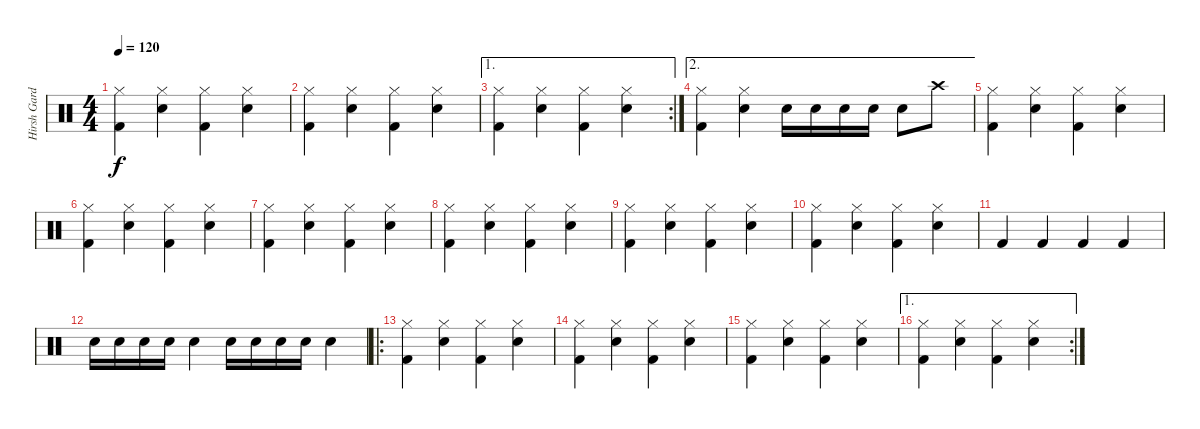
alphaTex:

\track ("Hirsh Gardner" "Hirsh Gard") {instrument percussion}
\staff {score}
\articulation defaults
\ts (4 4)
\tempo 120
\clef neutral
\ks c
("Kick (hit) 2" "Hi-Hat (closed)").4{dy f} ("Snare (hit) 2" "Hi-Hat (closed)").4 ("Kick (hit) 2" "Hi-Hat (closed)").4 ("Snare (hit) 2" "Hi-Hat (closed)").4 |
("Kick (hit) 2" "Hi-Hat (closed)").4 ("Snare (hit) 2" "Hi-Hat (closed)").4 ("Kick (hit) 2" "Hi-Hat (closed)").4 ("Snare (hit) 2" "Hi-Hat (closed)").4 |
\ae 1
\rc 2
("Kick (hit) 2" "Hi-Hat (closed)").4 ("Snare (hit) 2" "Hi-Hat (closed)").4 ("Kick (hit) 2" "Hi-Hat (closed)").4 ("Snare (hit) 2" "Hi-Hat (closed)").4 |
\ae 2
("Kick (hit) 2" "Hi-Hat (closed)").4 ("Snare (hit) 2" "Hi-Hat (closed)").4 "Snare (hit) 2".16 "Snare (hit) 2".16 "Snare (hit) 2".16 "Snare (hit) 2".16 "Snare (hit) 2".8 "Crash high (hit)".8 |
("Kick (hit) 2" "Hi-Hat (closed)").4 ("Snare (hit) 2" "Hi-Hat (closed)").4 ("Kick (hit) 2" "Hi-Hat (closed)").4 ("Snare (hit) 2" "Hi-Hat (closed)").4 |
("Kick (hit) 2" "Hi-Hat (closed)").4 ("Snare (hit) 2" "Hi-Hat (closed)").4 ("Kick (hit) 2" "Hi-Hat (closed)").4 ("Snare (hit) 2" "Hi-Hat (closed)").4 |
("Kick (hit) 2" "Hi-Hat (closed)").4 ("Snare (hit) 2" "Hi-Hat (closed)").4 ("Kick (hit) 2" "Hi-Hat (closed)").4 ("Snare (hit) 2" "Hi-Hat (closed)").4 |
("Kick (hit) 2" "Hi-Hat (closed)").4 ("Snare (hit) 2" "Hi-Hat (closed)").4 ("Kick (hit) 2" "Hi-Hat (closed)").4 ("Snare (hit) 2" "Hi-Hat (closed)").4 |
("Kick (hit) 2" "Hi-Hat (closed)").4 ("Snare (hit) 2" "Hi-Hat (closed)").4 ("Kick (hit) 2" "Hi-Hat (closed)").4 ("Snare (hit) 2" "Hi-Hat (closed)").4 |
("Kick (hit) 2" "Hi-Hat (closed)").4 ("Snare (hit) 2" "Hi-Hat (closed)").4 ("Kick (hit) 2" "Hi-Hat (closed)").4 ("Snare (hit) 2" "Hi-Hat (closed)").4 |
"Kick (hit) 2".4 "Kick (hit) 2".4 "Kick (hit) 2".4 "Kick (hit) 2".4 |
"Snare (hit) 2".16 "Snare (hit) 2".16 "Snare (hit) 2".16 "Snare (hit) 2".16 "Snare (hit) 2".4 "Snare (hit) 2".16 "Snare (hit) 2".16 "Snare (hit) 2".16 "Snare (hit) 2".16 "Snare (hit) 2".4 |
\ro
("Kick (hit) 2" "Hi-Hat (closed)").4 ("Snare (hit) 2" "Hi-Hat (closed)").4 ("Kick (hit) 2" "Hi-Hat (closed)").4 ("Snare (hit) 2" "Hi-Hat (closed)").4 |
("Kick (hit) 2" "Hi-Hat (closed)").4 ("Snare (hit) 2" "Hi-Hat (closed)").4 ("Kick (hit) 2" "Hi-Hat (closed)").4 ("Snare (hit) 2" "Hi-Hat (closed)").4 |
("Kick (hit) 2" "Hi-Hat (closed)").4 ("Snare (hit) 2" "Hi-Hat (closed)").4 ("Kick (hit) 2" "Hi-Hat (closed)").4 ("Snare (hit) 2" "Hi-Hat (closed)").4 |
\ae 1
\rc 2
("Kick (hit) 2" "Hi-Hat (closed)").4 ("Snare (hit) 2" "Hi-Hat (closed)").4 ("Kick (hit) 2" "Hi-Hat (closed)").4 ("Snare (hit) 2" "Hi-Hat (closed)").4
